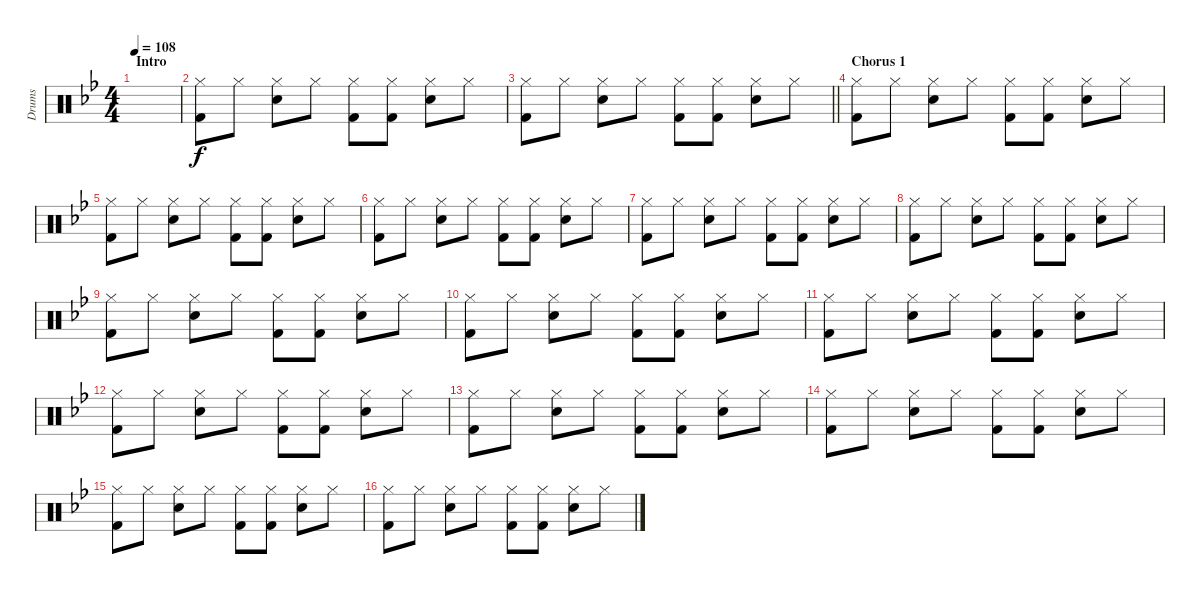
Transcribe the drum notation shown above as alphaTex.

\track ("Drums" "Drums") {instrument percussion}
\staff {score}
\articulation defaults
\ts (4 4)
\section ("" "Intro")
\tempo 108
\clef neutral
\ks bb
|
("Hi-Hat (closed)" "Kick (hit) 2").8 "Hi-Hat (closed)".8 ("Hi-Hat (closed)" "Snare (hit) 2").8 "Hi-Hat (closed)".8 ("Hi-Hat (closed)" "Kick (hit) 2").8 ("Hi-Hat (closed)" "Kick (hit) 2").8 ("Hi-Hat (closed)" "Snare (hit) 2").8 "Hi-Hat (closed)".8 |
\barLineRight lightlight
("Hi-Hat (closed)" "Kick (hit) 2").8 "Hi-Hat (closed)".8 ("Hi-Hat (closed)" "Snare (hit) 2").8 "Hi-Hat (closed)".8 ("Hi-Hat (closed)" "Kick (hit) 2").8 ("Hi-Hat (closed)" "Kick (hit) 2").8 ("Hi-Hat (closed)" "Snare (hit) 2").8 "Hi-Hat (closed)".8 |
\section ("" "Chorus 1")
("Hi-Hat (closed)" "Kick (hit) 2").8 "Hi-Hat (closed)".8 ("Hi-Hat (closed)" "Snare (hit) 2").8 "Hi-Hat (closed)".8 ("Hi-Hat (closed)" "Kick (hit) 2").8 ("Hi-Hat (closed)" "Kick (hit) 2").8 ("Hi-Hat (closed)" "Snare (hit) 2").8 "Hi-Hat (closed)".8 |
("Hi-Hat (closed)" "Kick (hit) 2").8 "Hi-Hat (closed)".8 ("Hi-Hat (closed)" "Snare (hit) 2").8 "Hi-Hat (closed)".8 ("Hi-Hat (closed)" "Kick (hit) 2").8 ("Hi-Hat (closed)" "Kick (hit) 2").8 ("Hi-Hat (closed)" "Snare (hit) 2").8 "Hi-Hat (closed)".8 |
("Hi-Hat (closed)" "Kick (hit) 2").8 "Hi-Hat (closed)".8 ("Hi-Hat (closed)" "Snare (hit) 2").8 "Hi-Hat (closed)".8 ("Hi-Hat (closed)" "Kick (hit) 2").8 ("Hi-Hat (closed)" "Kick (hit) 2").8 ("Hi-Hat (closed)" "Snare (hit) 2").8 "Hi-Hat (closed)".8 |
("Hi-Hat (closed)" "Kick (hit) 2").8 "Hi-Hat (closed)".8 ("Hi-Hat (closed)" "Snare (hit) 2").8 "Hi-Hat (closed)".8 ("Hi-Hat (closed)" "Kick (hit) 2").8 ("Hi-Hat (closed)" "Kick (hit) 2").8 ("Hi-Hat (closed)" "Snare (hit) 2").8 "Hi-Hat (closed)".8 |
("Hi-Hat (closed)" "Kick (hit) 2").8 "Hi-Hat (closed)".8 ("Hi-Hat (closed)" "Snare (hit) 2").8 "Hi-Hat (closed)".8 ("Hi-Hat (closed)" "Kick (hit) 2").8 ("Hi-Hat (closed)" "Kick (hit) 2").8 ("Hi-Hat (closed)" "Snare (hit) 2").8 "Hi-Hat (closed)".8 |
("Hi-Hat (closed)" "Kick (hit) 2").8 "Hi-Hat (closed)".8 ("Hi-Hat (closed)" "Snare (hit) 2").8 "Hi-Hat (closed)".8 ("Hi-Hat (closed)" "Kick (hit) 2").8 ("Hi-Hat (closed)" "Kick (hit) 2").8 ("Hi-Hat (closed)" "Snare (hit) 2").8 "Hi-Hat (closed)".8 |
("Hi-Hat (closed)" "Kick (hit) 2").8 "Hi-Hat (closed)".8 ("Hi-Hat (closed)" "Snare (hit) 2").8 "Hi-Hat (closed)".8 ("Hi-Hat (closed)" "Kick (hit) 2").8 ("Hi-Hat (closed)" "Kick (hit) 2").8 ("Hi-Hat (closed)" "Snare (hit) 2").8 "Hi-Hat (closed)".8 |
("Hi-Hat (closed)" "Kick (hit) 2").8 "Hi-Hat (closed)".8 ("Hi-Hat (closed)" "Snare (hit) 2").8 "Hi-Hat (closed)".8 ("Hi-Hat (closed)" "Kick (hit) 2").8 ("Hi-Hat (closed)" "Kick (hit) 2").8 ("Hi-Hat (closed)" "Snare (hit) 2").8 "Hi-Hat (closed)".8 |
("Hi-Hat (closed)" "Kick (hit) 2").8 "Hi-Hat (closed)".8 ("Hi-Hat (closed)" "Snare (hit) 2").8 "Hi-Hat (closed)".8 ("Hi-Hat (closed)" "Kick (hit) 2").8 ("Hi-Hat (closed)" "Kick (hit) 2").8 ("Hi-Hat (closed)" "Snare (hit) 2").8 "Hi-Hat (closed)".8 |
("Hi-Hat (closed)" "Kick (hit) 2").8 "Hi-Hat (closed)".8 ("Hi-Hat (closed)" "Snare (hit) 2").8 "Hi-Hat (closed)".8 ("Hi-Hat (closed)" "Kick (hit) 2").8 ("Hi-Hat (closed)" "Kick (hit) 2").8 ("Hi-Hat (closed)" "Snare (hit) 2").8 "Hi-Hat (closed)".8 |
("Hi-Hat (closed)" "Kick (hit) 2").8 "Hi-Hat (closed)".8 ("Hi-Hat (closed)" "Snare (hit) 2").8 "Hi-Hat (closed)".8 ("Hi-Hat (closed)" "Kick (hit) 2").8 ("Hi-Hat (closed)" "Kick (hit) 2").8 ("Hi-Hat (closed)" "Snare (hit) 2").8 "Hi-Hat (closed)".8 |
("Hi-Hat (closed)" "Kick (hit) 2").8 "Hi-Hat (closed)".8 ("Hi-Hat (closed)" "Snare (hit) 2").8 "Hi-Hat (closed)".8 ("Hi-Hat (closed)" "Kick (hit) 2").8 ("Hi-Hat (closed)" "Kick (hit) 2").8 ("Hi-Hat (closed)" "Snare (hit) 2").8 "Hi-Hat (closed)".8 |
("Hi-Hat (closed)" "Kick (hit) 2").8 "Hi-Hat (closed)".8 ("Hi-Hat (closed)" "Snare (hit) 2").8 "Hi-Hat (closed)".8 ("Hi-Hat (closed)" "Kick (hit) 2").8 ("Hi-Hat (closed)" "Kick (hit) 2").8 ("Hi-Hat (closed)" "Snare (hit) 2").8 "Hi-Hat (closed)".8
